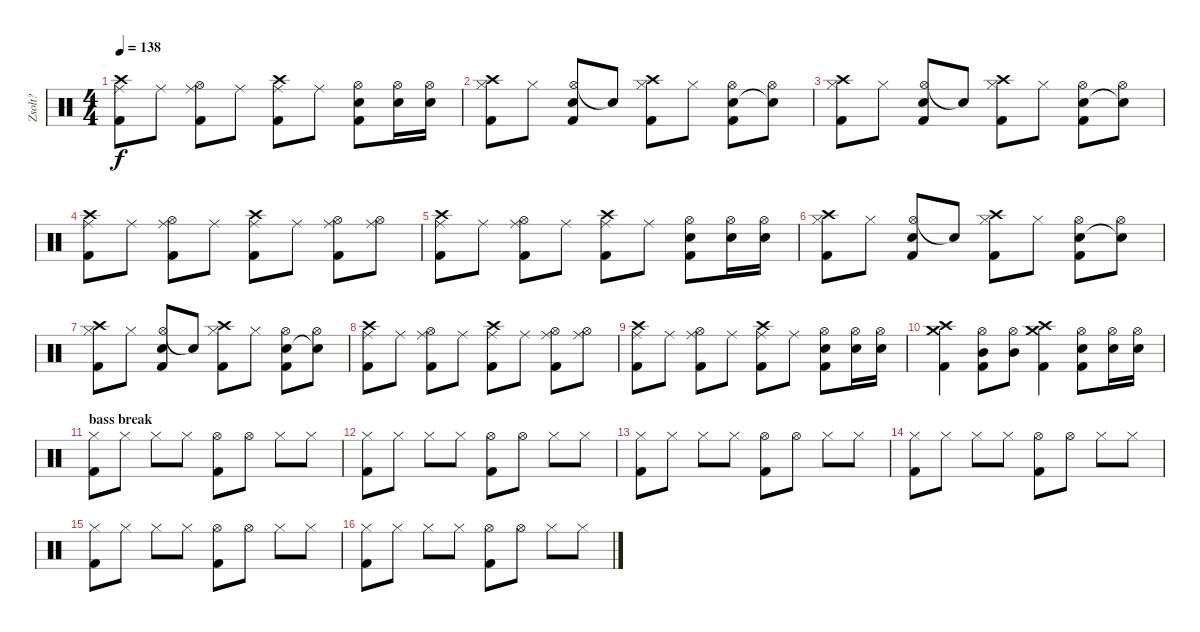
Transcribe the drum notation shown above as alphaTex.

\track ("Zsolt?" "Zsolt?") {instrument percussion}
\staff {score}
\articulation defaults
\ts (4 4)
\tempo 138
\clef neutral
\ks c
("Crash high (hit)" "Ride (middle)" "Kick (hit) 2").8{dy f} "Ride (middle)".8 ("Hi-Hat (open)" "Ride (middle)" "Kick (hit) 2").8 "Ride (middle)".8 ("Crash high (hit)" "Ride (middle)" "Kick (hit) 2").8 "Ride (middle)".8 ("Hi-Hat (open)" "Snare (hit) 2" "Kick (hit) 2").8 ("Hi-Hat (open)" "Snare (hit) 2").16 ("Hi-Hat (open)" "Snare (hit) 2").16 |
("Crash high (hit)" "Hi-Hat (closed)" "Kick (hit) 2").8 "Hi-Hat (closed)".8 ("Hi-Hat (open)" "Snare (hit) 2" "Kick (hit) 2").8 "Snare (hit) 2"{t}.8 ("Crash high (hit)" "Hi-Hat (closed)" "Kick (hit) 2").8 "Hi-Hat (closed)".8 ("Hi-Hat (open)" "Snare (hit) 2" "Kick (hit) 2").8 ("Hi-Hat (open)" "Snare (hit) 2"{t}).8 |
("Crash high (hit)" "Hi-Hat (closed)" "Kick (hit) 2").8 "Hi-Hat (closed)".8 ("Hi-Hat (open)" "Snare (hit) 2" "Kick (hit) 2").8 "Snare (hit) 2"{t}.8 ("Crash high (hit)" "Hi-Hat (closed)" "Kick (hit) 2").8 "Hi-Hat (closed)".8 ("Hi-Hat (open)" "Snare (hit) 2" "Kick (hit) 2").8 ("Hi-Hat (open)" "Snare (hit) 2"{t}).8 |
("Crash high (hit)" "Ride (middle)" "Kick (hit) 2").8 "Ride (middle)".8 ("Hi-Hat (open)" "Ride (middle)" "Kick (hit) 2").8 "Ride (middle)".8 ("Crash high (hit)" "Ride (middle)" "Kick (hit) 2").8 "Ride (middle)".8 ("Hi-Hat (open)" "Ride (middle)" "Kick (hit) 2").8 ("Hi-Hat (open)" "Ride (middle)").8 |
("Crash high (hit)" "Ride (middle)" "Kick (hit) 2").8 "Ride (middle)".8 ("Hi-Hat (open)" "Ride (middle)" "Kick (hit) 2").8 "Ride (middle)".8 ("Crash high (hit)" "Ride (middle)" "Kick (hit) 2").8 "Ride (middle)".8 ("Hi-Hat (open)" "Snare (hit) 2" "Kick (hit) 2").8 ("Hi-Hat (open)" "Snare (hit) 2").16 ("Hi-Hat (open)" "Snare (hit) 2").16 |
("Crash high (hit)" "Hi-Hat (closed)" "Kick (hit) 2").8 "Hi-Hat (closed)".8 ("Hi-Hat (open)" "Snare (hit) 2" "Kick (hit) 2").8 "Snare (hit) 2"{t}.8 ("Crash high (hit)" "Hi-Hat (closed)" "Kick (hit) 2").8 "Hi-Hat (closed)".8 ("Hi-Hat (open)" "Snare (hit) 2" "Kick (hit) 2").8 ("Hi-Hat (open)" "Snare (hit) 2"{t}).8 |
("Crash high (hit)" "Hi-Hat (closed)" "Kick (hit) 2").8 "Hi-Hat (closed)".8 ("Hi-Hat (open)" "Snare (hit) 2" "Kick (hit) 2").8 "Snare (hit) 2"{t}.8 ("Crash high (hit)" "Hi-Hat (closed)" "Kick (hit) 2").8 "Hi-Hat (closed)".8 ("Hi-Hat (open)" "Snare (hit) 2" "Kick (hit) 2").8 ("Hi-Hat (open)" "Snare (hit) 2"{t}).8 |
("Crash high (hit)" "Ride (middle)" "Kick (hit) 2").8 "Ride (middle)".8 ("Hi-Hat (open)" "Ride (middle)" "Kick (hit) 2").8 "Ride (middle)".8 ("Crash high (hit)" "Ride (middle)" "Kick (hit) 2").8 "Ride (middle)".8 ("Hi-Hat (open)" "Ride (middle)" "Kick (hit) 2").8 ("Hi-Hat (open)" "Ride (middle)").8 |
("Crash high (hit)" "Ride (middle)" "Kick (hit) 2").8 "Ride (middle)".8 ("Hi-Hat (open)" "Ride (middle)" "Kick (hit) 2").8 "Ride (middle)".8 ("Crash high (hit)" "Ride (middle)" "Kick (hit) 2").8 "Ride (middle)".8 ("Hi-Hat (open)" "Snare (hit) 2" "Kick (hit) 2").8 ("Hi-Hat (open)" "Snare (hit) 2").16 ("Hi-Hat (open)" "Snare (hit) 2").16 |
("Crash high (hit)" "Crash medium (hit)" "Kick (hit) 2").4 ("Hi-Hat (open)" "Mid Tom (hit)" "Kick (hit) 2").8 ("Hi-Hat (open)" "Mid Tom (hit)").8 ("Crash high (hit)" "Crash medium (hit)" "Kick (hit) 2").4 ("Hi-Hat (open)" "Snare (hit) 2" "Kick (hit) 2").8 ("Hi-Hat (open)" "Snare (hit) 2").16 ("Hi-Hat (open)" "Snare (hit) 2").16 |
\section ("" "bass break")
("Hi-Hat (closed)" "Kick (hit) 2").8 "Hi-Hat (closed)".8 "Hi-Hat (closed)".8 "Hi-Hat (closed)".8 ("Hi-Hat (open)" "Kick (hit) 2").8 "Hi-Hat (open)".8 "Hi-Hat (closed)".8 "Hi-Hat (closed)".8 |
("Hi-Hat (closed)" "Kick (hit) 2").8 "Hi-Hat (closed)".8 "Hi-Hat (closed)".8 "Hi-Hat (closed)".8 ("Hi-Hat (open)" "Kick (hit) 2").8 "Hi-Hat (open)".8 "Hi-Hat (closed)".8 "Hi-Hat (closed)".8 |
("Hi-Hat (closed)" "Kick (hit) 2").8 "Hi-Hat (closed)".8 "Hi-Hat (closed)".8 "Hi-Hat (closed)".8 ("Hi-Hat (open)" "Kick (hit) 2").8 "Hi-Hat (open)".8 "Hi-Hat (closed)".8 "Hi-Hat (closed)".8 |
("Hi-Hat (closed)" "Kick (hit) 2").8 "Hi-Hat (closed)".8 "Hi-Hat (closed)".8 "Hi-Hat (closed)".8 ("Hi-Hat (open)" "Kick (hit) 2").8 "Hi-Hat (open)".8 "Hi-Hat (closed)".8 "Hi-Hat (closed)".8 |
("Hi-Hat (closed)" "Kick (hit) 2").8 "Hi-Hat (closed)".8 "Hi-Hat (closed)".8 "Hi-Hat (closed)".8 ("Hi-Hat (open)" "Kick (hit) 2").8 "Hi-Hat (open)".8 "Hi-Hat (closed)".8 "Hi-Hat (closed)".8 |
("Hi-Hat (closed)" "Kick (hit) 2").8 "Hi-Hat (closed)".8 "Hi-Hat (closed)".8 "Hi-Hat (closed)".8 ("Hi-Hat (open)" "Kick (hit) 2").8 "Hi-Hat (open)".8 "Hi-Hat (closed)".8 "Hi-Hat (closed)".8
